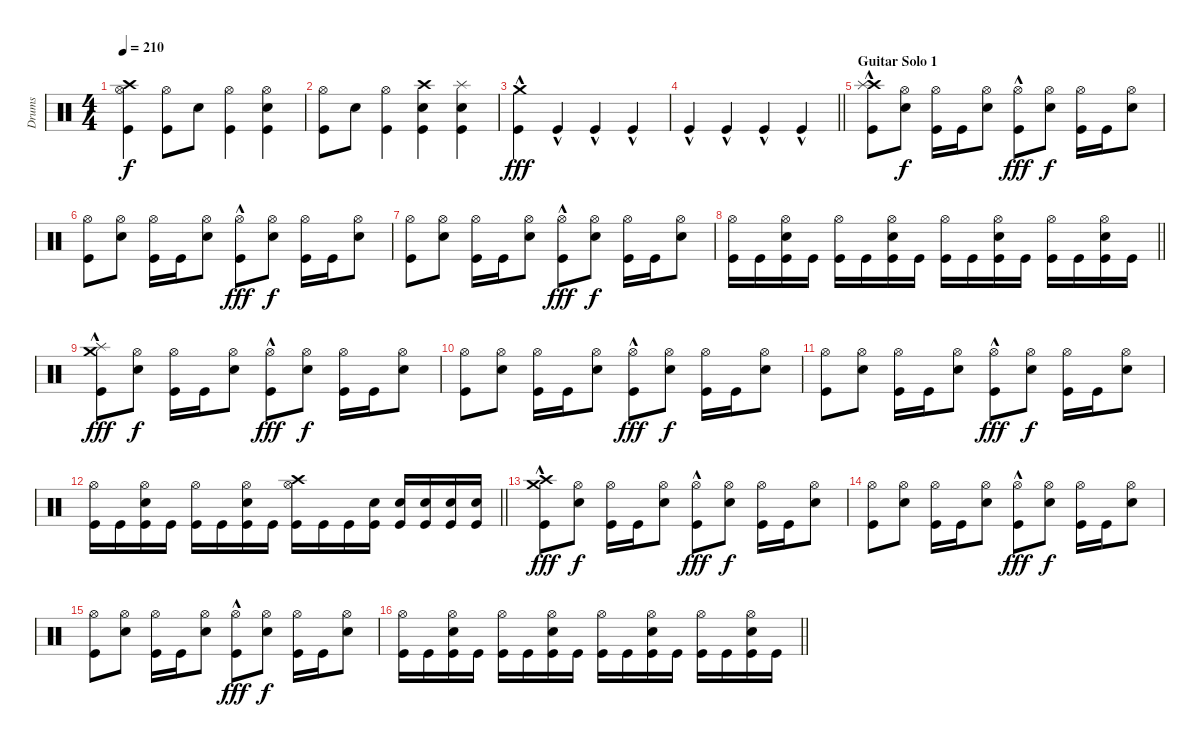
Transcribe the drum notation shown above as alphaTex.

\track ("Drums" "Drums") {instrument percussion}
\staff {score}
\articulation defaults
\ts (4 4)
\tempo 210
\clef neutral
\ks c
("Crash high (hit)" "Hi-Hat (open)" "Kick (hit)").4{dy f} ("Hi-Hat (open)" "Kick (hit)").8 "Electric Snare (hit)".8 ("Hi-Hat (open)" "Kick (hit)").4 ("Hi-Hat (open)" "Electric Snare (hit)" "Kick (hit)").4 |
("Hi-Hat (open)" "Kick (hit)").8 "Electric Snare (hit)".8 ("Hi-Hat (open)" "Kick (hit)").4 ("Crash high (hit)" "Electric Snare (hit)" "Kick (hit)").4 ("Splash (hit)" "Electric Snare (hit)" "Kick (hit)").4 |
("Crash medium (hit)" "Kick (hit)"{hac}).4{dy fff} "Kick (hit)"{hac}.4 "Kick (hit)"{hac}.4 "Kick (hit)"{hac}.4 |
\barLineRight lightlight "Kick (hit)"{hac}.4 "Kick (hit)"{hac}.4 "Kick (hit)"{hac}.4 "Kick (hit)"{hac}.4
|
\section ("" "Guitar Solo 1")
("Crash high (hit)" "Splash (hit)" "Kick (hit)"{hac}).8 ("Hi-Hat (open)" "Electric Snare (hit)").8{dy f} ("Hi-Hat (open)" "Kick (hit)").16 "Kick (hit)".16 ("Hi-Hat (open)" "Electric Snare (hit)").8 ("Hi-Hat (open)" "Kick (hit)"{hac}).8{dy fff} ("Hi-Hat (open)" "Electric Snare (hit)").8{dy f} ("Hi-Hat (open)" "Kick (hit)").16 "Kick (hit)".16 ("Hi-Hat (open)" "Electric Snare (hit)").8 |
("Hi-Hat (open)" "Kick (hit)").8 ("Hi-Hat (open)" "Electric Snare (hit)").8 ("Hi-Hat (open)" "Kick (hit)").16 "Kick (hit)".16 ("Hi-Hat (open)" "Electric Snare (hit)").8 ("Hi-Hat (open)" "Kick (hit)"{hac}).8{dy fff} ("Hi-Hat (open)" "Electric Snare (hit)").8{dy f} ("Hi-Hat (open)" "Kick (hit)").16 "Kick (hit)".16 ("Hi-Hat (open)" "Electric Snare (hit)").8 |
("Hi-Hat (open)" "Kick (hit)").8 ("Hi-Hat (open)" "Electric Snare (hit)").8 ("Hi-Hat (open)" "Kick (hit)").16 "Kick (hit)".16 ("Hi-Hat (open)" "Electric Snare (hit)").8 ("Hi-Hat (open)" "Kick (hit)"{hac}).8{dy fff} ("Hi-Hat (open)" "Electric Snare (hit)").8{dy f} ("Hi-Hat (open)" "Kick (hit)").16 "Kick (hit)".16 ("Hi-Hat (open)" "Electric Snare (hit)").8 |
\barLineRight lightlight
("Hi-Hat (open)" "Kick (hit)").16 "Kick (hit)".16 ("Hi-Hat (open)" "Electric Snare (hit)" "Kick (hit)").16 "Kick (hit)".16 ("Hi-Hat (open)" "Kick (hit)").16 "Kick (hit)".16 ("Hi-Hat (open)" "Electric Snare (hit)" "Kick (hit)").16 "Kick (hit)".16 ("Hi-Hat (open)" "Kick (hit)").16 "Kick (hit)".16 ("Hi-Hat (open)" "Electric Snare (hit)" "Kick (hit)").16 "Kick (hit)".16 ("Hi-Hat (open)" "Kick (hit)").16 "Kick (hit)".16 ("Hi-Hat (open)" "Electric Snare (hit)" "Kick (hit)").16 "Kick (hit)".16 |
("Crash medium (hit)" "Splash (hit)" "Kick (hit)"{hac}).8{dy fff} ("Hi-Hat (open)" "Electric Snare (hit)").8{dy f} ("Hi-Hat (open)" "Kick (hit)").16 "Kick (hit)".16 ("Hi-Hat (open)" "Electric Snare (hit)").8 ("Hi-Hat (open)" "Kick (hit)"{hac}).8{dy fff} ("Hi-Hat (open)" "Electric Snare (hit)").8{dy f} ("Hi-Hat (open)" "Kick (hit)").16 "Kick (hit)".16 ("Hi-Hat (open)" "Electric Snare (hit)").8 |
("Hi-Hat (open)" "Kick (hit)").8 ("Hi-Hat (open)" "Electric Snare (hit)").8 ("Hi-Hat (open)" "Kick (hit)").16 "Kick (hit)".16 ("Hi-Hat (open)" "Electric Snare (hit)").8 ("Hi-Hat (open)" "Kick (hit)"{hac}).8{dy fff} ("Hi-Hat (open)" "Electric Snare (hit)").8{dy f} ("Hi-Hat (open)" "Kick (hit)").16 "Kick (hit)".16 ("Hi-Hat (open)" "Electric Snare (hit)").8 |
("Hi-Hat (open)" "Kick (hit)").8 ("Hi-Hat (open)" "Electric Snare (hit)").8 ("Hi-Hat (open)" "Kick (hit)").16 "Kick (hit)".16 ("Hi-Hat (open)" "Electric Snare (hit)").8 ("Hi-Hat (open)" "Kick (hit)"{hac}).8{dy fff} ("Hi-Hat (open)" "Electric Snare (hit)").8{dy f} ("Hi-Hat (open)" "Kick (hit)").16 "Kick (hit)".16 ("Hi-Hat (open)" "Electric Snare (hit)").8 |
\barLineRight lightlight
("Hi-Hat (open)" "Kick (hit)").16 "Kick (hit)".16 ("Hi-Hat (open)" "Electric Snare (hit)" "Kick (hit)").16 "Kick (hit)".16 ("Hi-Hat (open)" "Kick (hit)").16 "Kick (hit)".16 ("Hi-Hat (open)" "Electric Snare (hit)" "Kick (hit)").16 "Kick (hit)".16 ("Crash high (hit)" "Hi-Hat (open)" "Kick (hit)").16 "Kick (hit)".16 "Kick (hit)".16 ("Snare (hit) 2" "Kick (hit)").16 ("Snare (hit) 2" "Kick (hit)").16 ("Snare (hit) 2" "Kick (hit)").16 ("Snare (hit) 2" "Kick (hit)").16 ("Snare (hit) 2" "Kick (hit)").16 |
("Crash medium (hit)" "Crash high (hit)" "Kick (hit)"{hac}).8{dy fff} ("Hi-Hat (open)" "Electric Snare (hit)").8{dy f} ("Hi-Hat (open)" "Kick (hit)").16 "Kick (hit)".16 ("Hi-Hat (open)" "Electric Snare (hit)").8 ("Hi-Hat (open)" "Kick (hit)"{hac}).8{dy fff} ("Hi-Hat (open)" "Electric Snare (hit)").8{dy f} ("Hi-Hat (open)" "Kick (hit)").16 "Kick (hit)".16 ("Hi-Hat (open)" "Electric Snare (hit)").8 |
("Hi-Hat (open)" "Kick (hit)").8 ("Hi-Hat (open)" "Electric Snare (hit)").8 ("Hi-Hat (open)" "Kick (hit)").16 "Kick (hit)".16 ("Hi-Hat (open)" "Electric Snare (hit)").8 ("Hi-Hat (open)" "Kick (hit)"{hac}).8{dy fff} ("Hi-Hat (open)" "Electric Snare (hit)").8{dy f} ("Hi-Hat (open)" "Kick (hit)").16 "Kick (hit)".16 ("Hi-Hat (open)" "Electric Snare (hit)").8 |
("Hi-Hat (open)" "Kick (hit)").8 ("Hi-Hat (open)" "Electric Snare (hit)").8 ("Hi-Hat (open)" "Kick (hit)").16 "Kick (hit)".16 ("Hi-Hat (open)" "Electric Snare (hit)").8 ("Hi-Hat (open)" "Kick (hit)"{hac}).8{dy fff} ("Hi-Hat (open)" "Electric Snare (hit)").8{dy f} ("Hi-Hat (open)" "Kick (hit)").16 "Kick (hit)".16 ("Hi-Hat (open)" "Electric Snare (hit)").8 |
\barLineRight lightlight
("Hi-Hat (open)" "Kick (hit)").16 "Kick (hit)".16 ("Hi-Hat (open)" "Electric Snare (hit)" "Kick (hit)").16 "Kick (hit)".16 ("Hi-Hat (open)" "Kick (hit)").16 "Kick (hit)".16 ("Hi-Hat (open)" "Electric Snare (hit)" "Kick (hit)").16 "Kick (hit)".16 ("Hi-Hat (open)" "Kick (hit)").16 "Kick (hit)".16 ("Hi-Hat (open)" "Electric Snare (hit)" "Kick (hit)").16 "Kick (hit)".16 ("Hi-Hat (open)" "Kick (hit)").16 "Kick (hit)".16 ("Hi-Hat (open)" "Electric Snare (hit)" "Kick (hit)").16 "Kick (hit)".16
